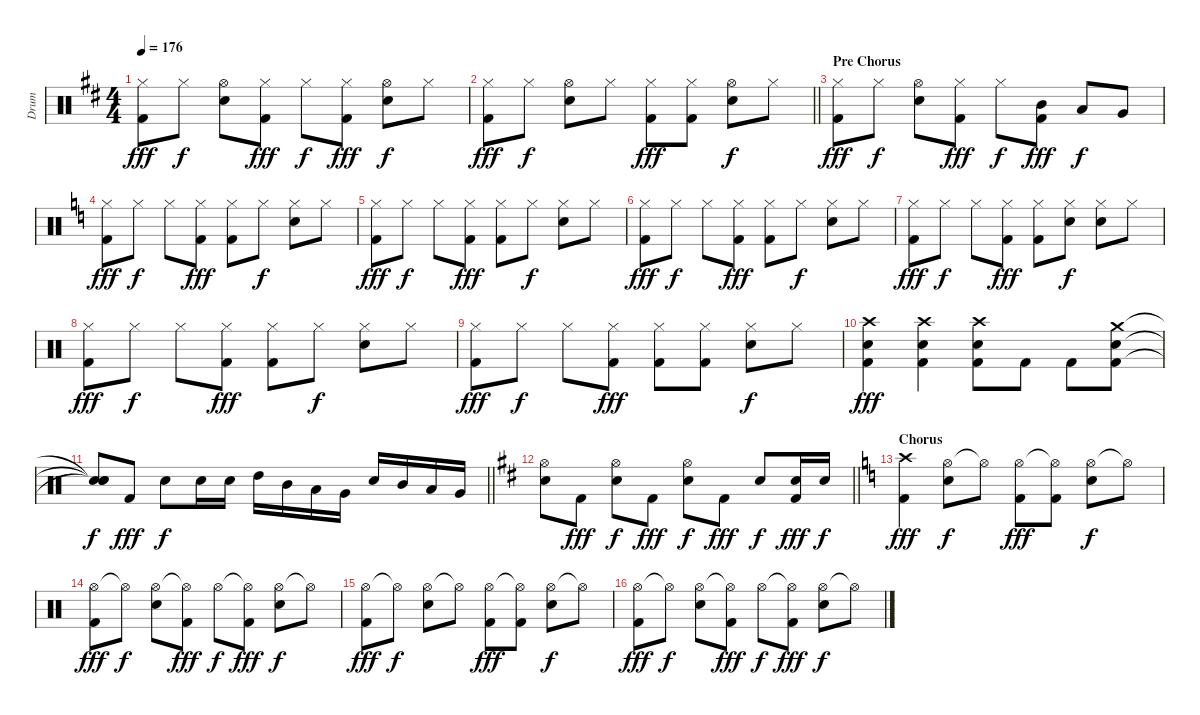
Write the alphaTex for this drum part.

\track ("Drum" "Drum") {instrument percussion}
\staff {score}
\articulation defaults
\ts (4 4)
\tempo 176
\clef neutral
\ks d
("Hi-Hat (closed)" "Kick (hit) 2").8{dy fff} "Hi-Hat (closed)".8{dy f} ("Hi-Hat (open)" "Snare (hit) 2").8 ("Hi-Hat (closed)" "Kick (hit) 2").8{dy fff} "Hi-Hat (closed)".8{dy f} ("Hi-Hat (closed)" "Kick (hit) 2").8{dy fff} ("Hi-Hat (open)" "Snare (hit) 2").8{dy f} "Hi-Hat (closed)".8 |
\barLineRight lightlight
("Hi-Hat (closed)" "Kick (hit) 2").8{dy fff} "Hi-Hat (closed)".8{dy f} ("Hi-Hat (open)" "Snare (hit) 2").8 "Hi-Hat (closed)".8 ("Hi-Hat (closed)" "Kick (hit) 2").8{dy fff} ("Hi-Hat (closed)" "Kick (hit) 2").8 ("Hi-Hat (open)" "Snare (hit) 2").8{dy f} "Hi-Hat (closed)".8 |
\section ("" "Pre Chorus")
("Hi-Hat (closed)" "Kick (hit) 2").8{dy fff} "Hi-Hat (closed)".8{dy f} ("Hi-Hat (open)" "Snare (hit) 2").8 ("Hi-Hat (closed)" "Kick (hit) 2").8{dy fff} "Hi-Hat (closed)".8{dy f} ("Mid Tom (hit)" "Kick (hit) 2").8{dy fff} "Low Tom (hit)".8{dy f} "Very Low Tom (hit)".8 |
\ks c
("Hi-Hat (closed)" "Kick (hit) 2").8{dy fff} "Hi-Hat (closed)".8{dy f} "Hi-Hat (closed)".8 ("Hi-Hat (closed)" "Kick (hit) 2").8{dy fff} ("Hi-Hat (closed)" "Kick (hit) 2").8 "Hi-Hat (closed)".8{dy f} ("Hi-Hat (closed)" "Snare (hit) 2").8 "Hi-Hat (closed)".8 |
("Hi-Hat (closed)" "Kick (hit) 2").8{dy fff} "Hi-Hat (closed)".8{dy f} "Hi-Hat (closed)".8 ("Hi-Hat (closed)" "Kick (hit) 2").8{dy fff} ("Hi-Hat (closed)" "Kick (hit) 2").8 "Hi-Hat (closed)".8{dy f} ("Hi-Hat (closed)" "Snare (hit) 2").8 "Hi-Hat (closed)".8 |
("Hi-Hat (closed)" "Kick (hit) 2").8{dy fff} "Hi-Hat (closed)".8{dy f} "Hi-Hat (closed)".8 ("Hi-Hat (closed)" "Kick (hit) 2").8{dy fff} ("Hi-Hat (closed)" "Kick (hit) 2").8 "Hi-Hat (closed)".8{dy f} ("Hi-Hat (closed)" "Snare (hit) 2").8 "Hi-Hat (closed)".8 |
("Hi-Hat (closed)" "Kick (hit) 2").8{dy fff} "Hi-Hat (closed)".8{dy f} "Hi-Hat (closed)".8 ("Hi-Hat (closed)" "Kick (hit) 2").8{dy fff} ("Hi-Hat (closed)" "Kick (hit) 2").8 ("Hi-Hat (closed)" "Snare (hit) 2").8{dy f} ("Hi-Hat (closed)" "Snare (hit) 2").8 "Hi-Hat (closed)".8 |
("Hi-Hat (closed)" "Kick (hit) 2").8{dy fff} "Hi-Hat (closed)".8{dy f} "Hi-Hat (closed)".8 ("Hi-Hat (closed)" "Kick (hit) 2").8{dy fff} ("Hi-Hat (closed)" "Kick (hit) 2").8 "Hi-Hat (closed)".8{dy f} ("Hi-Hat (closed)" "Snare (hit) 2").8 "Hi-Hat (closed)".8 |
("Hi-Hat (closed)" "Kick (hit) 2").8{dy fff} "Hi-Hat (closed)".8{dy f} "Hi-Hat (closed)".8 ("Hi-Hat (closed)" "Kick (hit) 2").8{dy fff} ("Hi-Hat (closed)" "Kick (hit) 2").8 ("Hi-Hat (closed)" "Kick (hit) 2").8 ("Hi-Hat (closed)" "Snare (hit) 2").8{dy f} "Hi-Hat (closed)".8 |
("Crash high (hit)" "Snare (hit) 2" "Kick (hit) 2").4{dy fff} ("Crash high (hit)" "Snare (hit) 2" "Kick (hit) 2").4 ("Crash high (hit)" "Snare (hit) 2" "Kick (hit) 2").8 "Kick (hit) 2".8 "Kick (hit) 2".8 ("Crash medium (hit)" "Snare (hit) 2" "Kick (hit) 2").8 |
\barLineRight lightlight
("Snare (hit)"{t} "Snare (hit)"{t} "Snare (hit)"{t}).8{dy f} "Kick (hit) 2".8{dy fff} "Snare (hit) 2".8{dy f} "Snare (hit) 2".16 "Snare (hit) 2".16 "High Tom (hit)".16 "Mid Tom (hit)".16 "Low Tom (hit)".16 "Very Low Tom (hit)".16 "Snare (hit) 2".16 "Mid Tom (hit)".16 "Low Tom (hit)".16 "Very Low Tom (hit)".16 |
\barLineRight lightlight
\ks d
("Hi-Hat (open)" "Snare (hit) 2").8 "Kick (hit) 2".8{dy fff} ("Hi-Hat (open)" "Snare (hit) 2").8{dy f} "Kick (hit) 2".8{dy fff} ("Hi-Hat (open)" "Snare (hit) 2").8{dy f} "Kick (hit) 2".8{dy fff} "Snare (hit) 2".8{dy f} ("Snare (hit) 2" "Kick (hit) 2").16{dy fff} "Snare (hit) 2".16{dy f} |
\section ("" "Chorus")
\ks c
("Crash high (hit)" "Kick (hit) 2").4{dy fff} ("Hi-Hat (open)" "Snare (hit) 2").8{dy f} "Hi-Hat (open)"{t}.8 ("Hi-Hat (open)" "Kick (hit) 2").8{dy fff} ("Hi-Hat (open)"{t} "Kick (hit) 2").8 ("Hi-Hat (open)" "Snare (hit) 2").8{dy f} "Hi-Hat (open)"{t}.8 |
("Hi-Hat (open)" "Kick (hit) 2").8{dy fff} "Hi-Hat (open)"{t}.8{dy f} ("Hi-Hat (open)" "Snare (hit) 2").8 ("Hi-Hat (open)"{t} "Kick (hit) 2").8{dy fff} "Hi-Hat (open)".8{dy f} ("Hi-Hat (open)"{t} "Kick (hit) 2").8{dy fff} ("Hi-Hat (open)" "Snare (hit) 2").8{dy f} "Hi-Hat (open)"{t}.8 |
("Hi-Hat (open)" "Kick (hit) 2").8{dy fff} "Hi-Hat (open)"{t}.8{dy f} ("Hi-Hat (open)" "Snare (hit) 2").8 "Hi-Hat (open)"{t}.8 ("Hi-Hat (open)" "Kick (hit) 2").8{dy fff} ("Hi-Hat (open)"{t} "Kick (hit) 2").8 ("Hi-Hat (open)" "Snare (hit) 2").8{dy f} "Hi-Hat (open)"{t}.8 |
("Hi-Hat (open)" "Kick (hit) 2").8{dy fff} "Hi-Hat (open)"{t}.8{dy f} ("Hi-Hat (open)" "Snare (hit) 2").8 ("Hi-Hat (open)"{t} "Kick (hit) 2").8{dy fff} "Hi-Hat (open)".8{dy f} ("Hi-Hat (open)"{t} "Kick (hit) 2").8{dy fff} ("Hi-Hat (open)" "Snare (hit) 2").8{dy f} "Hi-Hat (open)"{t}.8
